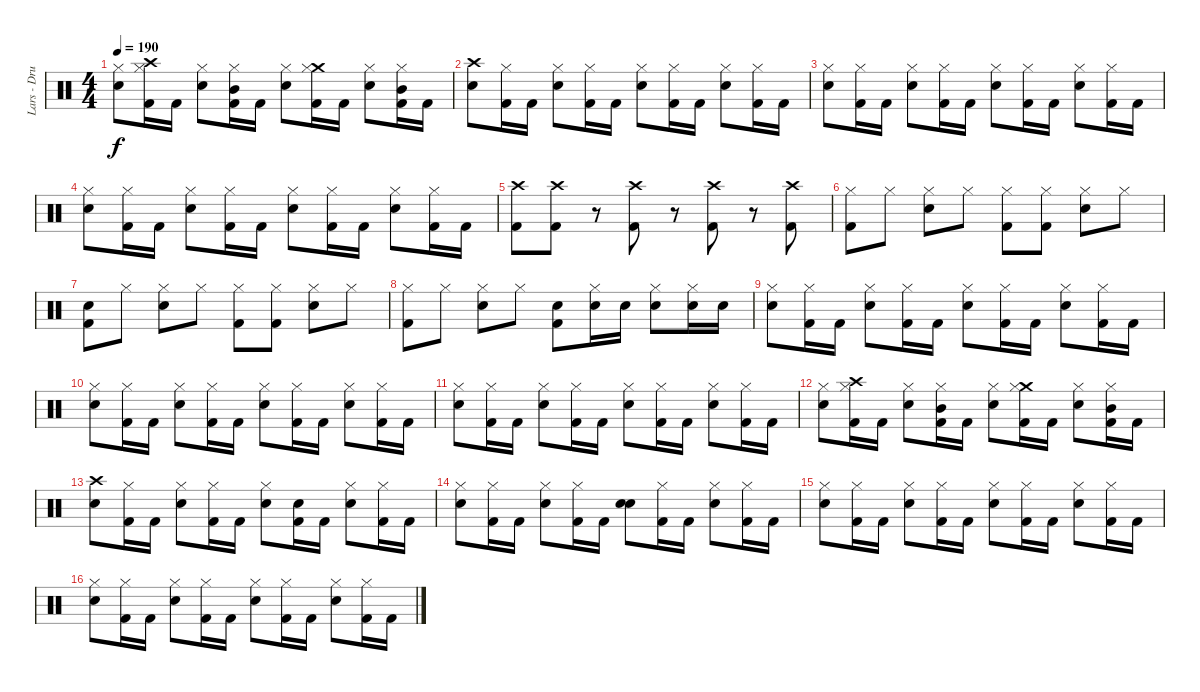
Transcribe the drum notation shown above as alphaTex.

\track ("Lars - Drums" "Lars - Dru") {instrument percussion}
\staff {score}
\articulation defaults
\ts (4 4)
\tempo 190
\clef neutral
\ks c
("Snare (hit) 2" "Hi-Hat (closed)").8{dy f} ("Kick (hit) 2" "Crash high (hit)" "Hi-Hat (closed)").16 "Kick (hit) 2".16 ("Snare (hit) 2" "Hi-Hat (closed)").8 ("Kick (hit) 2" "Mid Tom (hit)" "Hi-Hat (closed)").16 "Kick (hit) 2".16 ("Snare (hit) 2" "Hi-Hat (closed)").8 ("Kick (hit) 2" "Crash medium (hit)" "Hi-Hat (closed)").16 "Kick (hit) 2".16 ("Snare (hit) 2" "Hi-Hat (closed)").8 ("Kick (hit) 2" "Mid Tom (hit)" "Hi-Hat (closed)").16 "Kick (hit) 2".16 |
("Snare (hit) 2" "Crash high (hit)").8 ("Kick (hit) 2" "Hi-Hat (closed)").16 "Kick (hit) 2".16 ("Snare (hit) 2" "Hi-Hat (closed)").8 ("Kick (hit) 2" "Hi-Hat (closed)").16 "Kick (hit) 2".16 ("Snare (hit) 2" "Hi-Hat (closed)").8 ("Kick (hit) 2" "Hi-Hat (closed)").16 "Kick (hit) 2".16 ("Snare (hit) 2" "Hi-Hat (closed)").8 ("Kick (hit) 2" "Hi-Hat (closed)").16 "Kick (hit) 2".16 |
("Snare (hit) 2" "Hi-Hat (closed)").8 ("Kick (hit) 2" "Hi-Hat (closed)").16 "Kick (hit) 2".16 ("Snare (hit) 2" "Hi-Hat (closed)").8 ("Kick (hit) 2" "Hi-Hat (closed)").16 "Kick (hit) 2".16 ("Snare (hit) 2" "Hi-Hat (closed)").8 ("Kick (hit) 2" "Hi-Hat (closed)").16 "Kick (hit) 2".16 ("Snare (hit) 2" "Hi-Hat (closed)").8 ("Kick (hit) 2" "Hi-Hat (closed)").16 "Kick (hit) 2".16 |
("Snare (hit) 2" "Hi-Hat (closed)").8 ("Kick (hit) 2" "Hi-Hat (closed)").16 "Kick (hit) 2".16 ("Snare (hit) 2" "Hi-Hat (closed)").8 ("Kick (hit) 2" "Hi-Hat (closed)").16 "Kick (hit) 2".16 ("Snare (hit) 2" "Hi-Hat (closed)").8 ("Kick (hit) 2" "Hi-Hat (closed)").16 "Kick (hit) 2".16 ("Snare (hit) 2" "Hi-Hat (closed)").8 ("Kick (hit) 2" "Hi-Hat (closed)").16 "Kick (hit) 2".16 |
("Crash high (hit)" "Kick (hit) 2").8 ("Crash high (hit)" "Kick (hit) 2").8 r.8 ("Crash high (hit)" "Kick (hit) 2").8 r.8 ("Crash high (hit)" "Kick (hit) 2").8 r.8 ("Crash high (hit)" "Kick (hit) 2").8 |
("Kick (hit) 2" "Hi-Hat (closed)").8 "Hi-Hat (closed)".8 ("Snare (hit) 2" "Hi-Hat (closed)").8 "Hi-Hat (closed)".8 ("Kick (hit) 2" "Hi-Hat (closed)").8 ("Kick (hit) 2" "Hi-Hat (closed)").8 ("Snare (hit) 2" "Hi-Hat (closed)").8 "Hi-Hat (closed)".8 |
("Kick (hit) 2" "Snare (hit)").8 "Hi-Hat (closed)".8 ("Snare (hit) 2" "Hi-Hat (closed)").8 "Hi-Hat (closed)".8 ("Kick (hit) 2" "Hi-Hat (closed)").8 ("Kick (hit) 2" "Hi-Hat (closed)").8 ("Snare (hit) 2" "Hi-Hat (closed)").8 "Hi-Hat (closed)".8 |
("Kick (hit) 2" "Hi-Hat (closed)").8 "Hi-Hat (closed)".8 ("Snare (hit) 2" "Hi-Hat (closed)").8 "Hi-Hat (closed)".8 ("Kick (hit) 2" "Snare (hit)").8 ("Snare (hit) 2" "Hi-Hat (closed)").16 "Snare (hit) 2".16 ("Snare (hit) 2" "Hi-Hat (closed)").8 ("Snare (hit) 2" "Hi-Hat (closed)").16 "Snare (hit) 2".16 |
("Snare (hit) 2" "Hi-Hat (closed)").8 ("Kick (hit) 2" "Hi-Hat (closed)").16 "Kick (hit) 2".16 ("Snare (hit) 2" "Hi-Hat (closed)").8 ("Kick (hit) 2" "Hi-Hat (closed)").16 "Kick (hit) 2".16 ("Snare (hit) 2" "Hi-Hat (closed)").8 ("Kick (hit) 2" "Hi-Hat (closed)").16 "Kick (hit) 2".16 ("Snare (hit) 2" "Hi-Hat (closed)").8 ("Kick (hit) 2" "Hi-Hat (closed)").16 "Kick (hit) 2".16 |
("Snare (hit) 2" "Hi-Hat (closed)").8 ("Kick (hit) 2" "Hi-Hat (closed)").16 "Kick (hit) 2".16 ("Snare (hit) 2" "Hi-Hat (closed)").8 ("Kick (hit) 2" "Hi-Hat (closed)").16 "Kick (hit) 2".16 ("Snare (hit) 2" "Hi-Hat (closed)").8 ("Kick (hit) 2" "Hi-Hat (closed)").16 "Kick (hit) 2".16 ("Snare (hit) 2" "Hi-Hat (closed)").8 ("Kick (hit) 2" "Hi-Hat (closed)").16 "Kick (hit) 2".16 |
("Snare (hit) 2" "Hi-Hat (closed)").8 ("Kick (hit) 2" "Hi-Hat (closed)").16 "Kick (hit) 2".16 ("Snare (hit) 2" "Hi-Hat (closed)").8 ("Kick (hit) 2" "Hi-Hat (closed)").16 "Kick (hit) 2".16 ("Snare (hit) 2" "Hi-Hat (closed)").8 ("Kick (hit) 2" "Hi-Hat (closed)").16 "Kick (hit) 2".16 ("Snare (hit) 2" "Hi-Hat (closed)").8 ("Kick (hit) 2" "Hi-Hat (closed)").16 "Kick (hit) 2".16 |
("Snare (hit) 2" "Hi-Hat (closed)").8 ("Kick (hit) 2" "Crash high (hit)" "Hi-Hat (closed)").16 "Kick (hit) 2".16 ("Snare (hit) 2" "Hi-Hat (closed)").8 ("Kick (hit) 2" "Mid Tom (hit)" "Hi-Hat (closed)").16 "Kick (hit) 2".16 ("Snare (hit) 2" "Hi-Hat (closed)").8 ("Kick (hit) 2" "Crash medium (hit)" "Hi-Hat (closed)").16 "Kick (hit) 2".16 ("Snare (hit) 2" "Hi-Hat (closed)").8 ("Kick (hit) 2" "Mid Tom (hit)" "Hi-Hat (closed)").16 "Kick (hit) 2".16 |
("Snare (hit) 2" "Crash high (hit)").8 ("Kick (hit) 2" "Hi-Hat (closed)").16 "Kick (hit) 2".16 ("Snare (hit) 2" "Hi-Hat (closed)").8 ("Kick (hit) 2" "Hi-Hat (closed)").16 "Kick (hit) 2".16 ("Snare (hit) 2" "Hi-Hat (closed)").8 ("Kick (hit) 2" "Snare (hit)").16 "Kick (hit) 2".16 ("Snare (hit) 2" "Hi-Hat (closed)").8 ("Kick (hit) 2" "Hi-Hat (closed)").16 "Kick (hit) 2".16 |
("Snare (hit) 2" "Hi-Hat (closed)").8 ("Kick (hit) 2" "Hi-Hat (closed)").16 "Kick (hit) 2".16 ("Snare (hit) 2" "Hi-Hat (closed)").8 ("Kick (hit) 2" "Hi-Hat (closed)").16 "Kick (hit) 2".16 ("Snare (hit) 2" "Snare (hit)").8 ("Kick (hit) 2" "Hi-Hat (closed)").16 "Kick (hit) 2".16 ("Snare (hit) 2" "Hi-Hat (closed)").8 ("Kick (hit) 2" "Hi-Hat (closed)").16 "Kick (hit) 2".16 |
("Snare (hit) 2" "Hi-Hat (closed)").8 ("Kick (hit) 2" "Hi-Hat (closed)").16 "Kick (hit) 2".16 ("Snare (hit) 2" "Hi-Hat (closed)").8 ("Kick (hit) 2" "Hi-Hat (closed)").16 "Kick (hit) 2".16 ("Snare (hit) 2" "Hi-Hat (closed)").8 ("Kick (hit) 2" "Hi-Hat (closed)").16 "Kick (hit) 2".16 ("Snare (hit) 2" "Hi-Hat (closed)").8 ("Kick (hit) 2" "Hi-Hat (closed)").16 "Kick (hit) 2".16 |
("Snare (hit) 2" "Hi-Hat (closed)").8 ("Kick (hit) 2" "Hi-Hat (closed)").16 "Kick (hit) 2".16 ("Snare (hit) 2" "Hi-Hat (closed)").8 ("Kick (hit) 2" "Hi-Hat (closed)").16 "Kick (hit) 2".16 ("Snare (hit) 2" "Hi-Hat (closed)").8 ("Kick (hit) 2" "Hi-Hat (closed)").16 "Kick (hit) 2".16 ("Snare (hit) 2" "Hi-Hat (closed)").8 ("Kick (hit) 2" "Hi-Hat (closed)").16 "Kick (hit) 2".16
